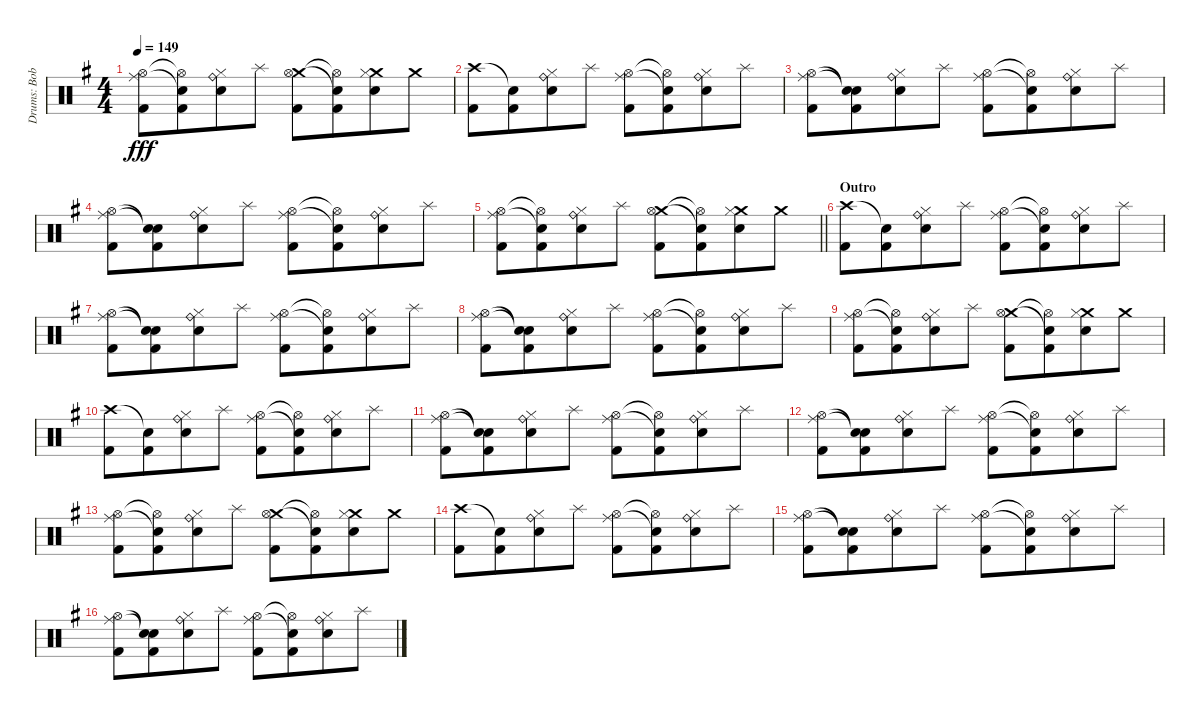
\track ("Drums: Bobby" "Drums: Bob") {instrument percussion}
\staff {score}
\articulation defaults
\ts (4 4)
\tempo 149
\clef neutral
\ks g
("Ride (middle)" "Hi-Hat (open)" "Kick (hit) 2").8{dy fff} ("Snare (hit)"{t} "Hi-Hat (open)"{t} "Kick (hit) 2").8{beam merge} ("Ride (bell)" "Hi-Hat (closed)" "Snare (hit) 2").8 "Splash (hit)".8 ("Crash medium (hit)" "Hi-Hat (open)" "Kick (hit) 2").8 ("Snare (hit)"{t} "Hi-Hat (open)"{t} "Kick (hit) 2").8{beam merge} ("Crash medium (hit)" "Hi-Hat (closed)" "Snare (hit) 2").8 "Crash medium (hit)".8 |
("Crash high (hit)" "Kick (hit) 2").8 ("Snare (hit)"{t} "Kick (hit) 2").8{beam merge} ("Ride (bell)" "Hi-Hat (closed)" "Snare (hit) 2").8 "Splash (hit)".8 ("Ride (middle)" "Hi-Hat (open)" "Kick (hit) 2").8 ("Snare (hit)"{t} "Hi-Hat (open)"{t} "Kick (hit) 2").8{beam merge} ("Ride (bell)" "Hi-Hat (closed)" "Snare (hit) 2").8 "Splash (hit)".8 |
("Ride (middle)" "Hi-Hat (open)" "Kick (hit) 2").8 ("Snare (hit)"{t} "Snare (hit)"{t} "Kick (hit) 2").8{beam merge} ("Ride (bell)" "Hi-Hat (closed)" "Snare (hit) 2").8 "Splash (hit)".8 ("Ride (middle)" "Hi-Hat (open)" "Kick (hit) 2").8 ("Snare (hit)"{t} "Hi-Hat (open)"{t} "Kick (hit) 2").8{beam merge} ("Ride (bell)" "Hi-Hat (closed)" "Snare (hit) 2").8 "Splash (hit)".8 |
("Ride (middle)" "Hi-Hat (open)" "Kick (hit) 2").8 ("Snare (hit)"{t} "Snare (hit)"{t} "Kick (hit) 2").8{beam merge} ("Ride (bell)" "Hi-Hat (closed)" "Snare (hit) 2").8 "Splash (hit)".8 ("Ride (middle)" "Hi-Hat (open)" "Kick (hit) 2").8 ("Snare (hit)"{t} "Hi-Hat (open)"{t} "Kick (hit) 2").8{beam merge} ("Ride (bell)" "Hi-Hat (closed)" "Snare (hit) 2").8 "Splash (hit)".8 |
\barLineRight lightlight
("Ride (middle)" "Hi-Hat (open)" "Kick (hit) 2").8 ("Snare (hit)"{t} "Hi-Hat (open)"{t} "Kick (hit) 2").8{beam merge} ("Ride (bell)" "Hi-Hat (closed)" "Snare (hit) 2").8 "Splash (hit)".8 ("Crash medium (hit)" "Hi-Hat (open)" "Kick (hit) 2").8 ("Snare (hit)"{t} "Hi-Hat (open)"{t} "Kick (hit) 2").8{beam merge} ("Crash medium (hit)" "Hi-Hat (closed)" "Snare (hit) 2").8 "Crash medium (hit)".8 |
\section ("" "Outro")
("Crash high (hit)" "Kick (hit) 2").8 ("Snare (hit)"{t} "Kick (hit) 2").8{beam merge} ("Ride (bell)" "Hi-Hat (closed)" "Snare (hit) 2").8 "Splash (hit)".8 ("Ride (middle)" "Hi-Hat (open)" "Kick (hit) 2").8 ("Snare (hit)"{t} "Hi-Hat (open)"{t} "Kick (hit) 2").8{beam merge} ("Ride (bell)" "Hi-Hat (closed)" "Snare (hit) 2").8 "Splash (hit)".8 |
("Ride (middle)" "Hi-Hat (open)" "Kick (hit) 2").8 ("Snare (hit)"{t} "Snare (hit)"{t} "Kick (hit) 2").8{beam merge} ("Ride (bell)" "Hi-Hat (closed)" "Snare (hit) 2").8 "Splash (hit)".8 ("Ride (middle)" "Hi-Hat (open)" "Kick (hit) 2").8 ("Snare (hit)"{t} "Hi-Hat (open)"{t} "Kick (hit) 2").8{beam merge} ("Ride (bell)" "Hi-Hat (closed)" "Snare (hit) 2").8 "Splash (hit)".8 |
("Ride (middle)" "Hi-Hat (open)" "Kick (hit) 2").8 ("Snare (hit)"{t} "Snare (hit)"{t} "Kick (hit) 2").8{beam merge} ("Ride (bell)" "Hi-Hat (closed)" "Snare (hit) 2").8 "Splash (hit)".8 ("Ride (middle)" "Hi-Hat (open)" "Kick (hit) 2").8 ("Snare (hit)"{t} "Hi-Hat (open)"{t} "Kick (hit) 2").8{beam merge} ("Ride (bell)" "Hi-Hat (closed)" "Snare (hit) 2").8 "Splash (hit)".8 |
("Ride (middle)" "Hi-Hat (open)" "Kick (hit) 2").8 ("Snare (hit)"{t} "Hi-Hat (open)"{t} "Kick (hit) 2").8{beam merge} ("Ride (bell)" "Hi-Hat (closed)" "Snare (hit) 2").8 "Splash (hit)".8 ("Crash medium (hit)" "Hi-Hat (open)" "Kick (hit) 2").8 ("Snare (hit)"{t} "Hi-Hat (open)"{t} "Kick (hit) 2").8{beam merge} ("Crash medium (hit)" "Hi-Hat (closed)" "Snare (hit) 2").8 "Crash medium (hit)".8 |
("Crash high (hit)" "Kick (hit) 2").8 ("Snare (hit)"{t} "Kick (hit) 2").8{beam merge} ("Ride (bell)" "Hi-Hat (closed)" "Snare (hit) 2").8 "Splash (hit)".8 ("Ride (middle)" "Hi-Hat (open)" "Kick (hit) 2").8 ("Snare (hit)"{t} "Hi-Hat (open)"{t} "Kick (hit) 2").8{beam merge} ("Ride (bell)" "Hi-Hat (closed)" "Snare (hit) 2").8 "Splash (hit)".8 |
("Ride (middle)" "Hi-Hat (open)" "Kick (hit) 2").8 ("Snare (hit)"{t} "Snare (hit)"{t} "Kick (hit) 2").8{beam merge} ("Ride (bell)" "Hi-Hat (closed)" "Snare (hit) 2").8 "Splash (hit)".8 ("Ride (middle)" "Hi-Hat (open)" "Kick (hit) 2").8 ("Snare (hit)"{t} "Hi-Hat (open)"{t} "Kick (hit) 2").8{beam merge} ("Ride (bell)" "Hi-Hat (closed)" "Snare (hit) 2").8 "Splash (hit)".8 |
("Ride (middle)" "Hi-Hat (open)" "Kick (hit) 2").8 ("Snare (hit)"{t} "Snare (hit)"{t} "Kick (hit) 2").8{beam merge} ("Ride (bell)" "Hi-Hat (closed)" "Snare (hit) 2").8 "Splash (hit)".8 ("Ride (middle)" "Hi-Hat (open)" "Kick (hit) 2").8 ("Snare (hit)"{t} "Hi-Hat (open)"{t} "Kick (hit) 2").8{beam merge} ("Ride (bell)" "Hi-Hat (closed)" "Snare (hit) 2").8 "Splash (hit)".8 |
("Ride (middle)" "Hi-Hat (open)" "Kick (hit) 2").8 ("Snare (hit)"{t} "Hi-Hat (open)"{t} "Kick (hit) 2").8{beam merge} ("Ride (bell)" "Hi-Hat (closed)" "Snare (hit) 2").8 "Splash (hit)".8 ("Crash medium (hit)" "Hi-Hat (open)" "Kick (hit) 2").8 ("Snare (hit)"{t} "Hi-Hat (open)"{t} "Kick (hit) 2").8{beam merge} ("Crash medium (hit)" "Hi-Hat (closed)" "Snare (hit) 2").8 "Crash medium (hit)".8 |
("Crash high (hit)" "Kick (hit) 2").8 ("Snare (hit)"{t} "Kick (hit) 2").8{beam merge} ("Ride (bell)" "Hi-Hat (closed)" "Snare (hit) 2").8 "Splash (hit)".8 ("Ride (middle)" "Hi-Hat (open)" "Kick (hit) 2").8 ("Snare (hit)"{t} "Hi-Hat (open)"{t} "Kick (hit) 2").8{beam merge} ("Ride (bell)" "Hi-Hat (closed)" "Snare (hit) 2").8 "Splash (hit)".8 |
("Ride (middle)" "Hi-Hat (open)" "Kick (hit) 2").8 ("Snare (hit)"{t} "Snare (hit)"{t} "Kick (hit) 2").8{beam merge} ("Ride (bell)" "Hi-Hat (closed)" "Snare (hit) 2").8 "Splash (hit)".8 ("Ride (middle)" "Hi-Hat (open)" "Kick (hit) 2").8 ("Snare (hit)"{t} "Hi-Hat (open)"{t} "Kick (hit) 2").8{beam merge} ("Ride (bell)" "Hi-Hat (closed)" "Snare (hit) 2").8 "Splash (hit)".8 |
("Ride (middle)" "Hi-Hat (open)" "Kick (hit) 2").8 ("Snare (hit)"{t} "Snare (hit)"{t} "Kick (hit) 2").8{beam merge} ("Ride (bell)" "Hi-Hat (closed)" "Snare (hit) 2").8 "Splash (hit)".8 ("Ride (middle)" "Hi-Hat (open)" "Kick (hit) 2").8 ("Snare (hit)"{t} "Hi-Hat (open)"{t} "Kick (hit) 2").8{beam merge} ("Ride (bell)" "Hi-Hat (closed)" "Snare (hit) 2").8 "Splash (hit)".8
